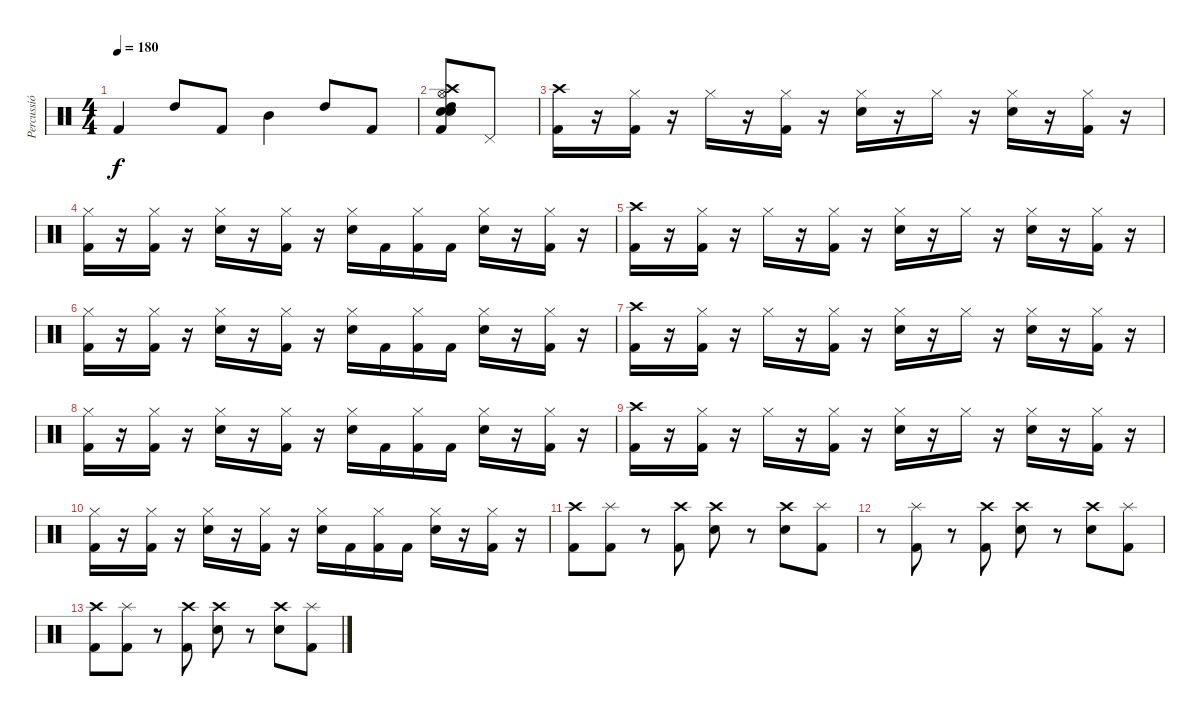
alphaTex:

\track ("Percussió" "Percussió") {instrument percussion}
\staff {score}
\articulation defaults
\ts (4 4)
\tempo 180
\clef neutral
\ks c "Kick (hit) 2".4{dy f} "High Tom (hit)".8 "Kick (hit) 2".8 "Mid Tom (hit)".4 "High Tom (hit)".8 "Kick (hit) 2".8
|
("Crash high (hit)" "Hi-Hat (open)" "High Tom (hit)" "Kick (hit) 2" "Electric Snare (hit)" "Snare (hit) 2").8 "Pedal Hi-Hat (hit)".8 |
("Crash high (hit)" "Kick (hit) 2").16 r.16 ("Hi-Hat (closed)" "Kick (hit) 2").16 r.16 "Hi-Hat (closed)".16 r.16 ("Hi-Hat (closed)" "Kick (hit) 2").16 r.16 ("Hi-Hat (closed)" "Electric Snare (hit)").16 r.16 "Hi-Hat (closed)".16 r.16 ("Hi-Hat (closed)" "Electric Snare (hit)").16 r.16 ("Hi-Hat (closed)" "Kick (hit) 2").16 r.16 |
("Hi-Hat (closed)" "Kick (hit) 2").16 r.16 ("Hi-Hat (closed)" "Kick (hit) 2").16 r.16 ("Hi-Hat (closed)" "Electric Snare (hit)").16 r.16 ("Hi-Hat (closed)" "Kick (hit) 2").16 r.16 ("Hi-Hat (closed)" "Electric Snare (hit)").16 "Kick (hit) 2".16 ("Hi-Hat (closed)" "Kick (hit) 2").16 "Kick (hit) 2".16 ("Hi-Hat (closed)" "Electric Snare (hit)").16 r.16 ("Hi-Hat (closed)" "Kick (hit) 2").16 r.16 |
("Crash high (hit)" "Kick (hit) 2").16 r.16 ("Hi-Hat (closed)" "Kick (hit) 2").16 r.16 "Hi-Hat (closed)".16 r.16 ("Hi-Hat (closed)" "Kick (hit) 2").16 r.16 ("Hi-Hat (closed)" "Electric Snare (hit)").16 r.16 "Hi-Hat (closed)".16 r.16 ("Hi-Hat (closed)" "Electric Snare (hit)").16 r.16 ("Hi-Hat (closed)" "Kick (hit) 2").16 r.16 |
("Hi-Hat (closed)" "Kick (hit) 2").16 r.16 ("Hi-Hat (closed)" "Kick (hit) 2").16 r.16 ("Hi-Hat (closed)" "Electric Snare (hit)").16 r.16 ("Hi-Hat (closed)" "Kick (hit) 2").16 r.16 ("Hi-Hat (closed)" "Electric Snare (hit)").16 "Kick (hit) 2".16 ("Hi-Hat (closed)" "Kick (hit) 2").16 "Kick (hit) 2".16 ("Hi-Hat (closed)" "Electric Snare (hit)").16 r.16 ("Hi-Hat (closed)" "Kick (hit) 2").16 r.16 |
("Crash high (hit)" "Kick (hit) 2").16 r.16 ("Hi-Hat (closed)" "Kick (hit) 2").16 r.16 "Hi-Hat (closed)".16 r.16 ("Hi-Hat (closed)" "Kick (hit) 2").16 r.16 ("Hi-Hat (closed)" "Electric Snare (hit)").16 r.16 "Hi-Hat (closed)".16 r.16 ("Hi-Hat (closed)" "Electric Snare (hit)").16 r.16 ("Hi-Hat (closed)" "Kick (hit) 2").16 r.16 |
("Hi-Hat (closed)" "Kick (hit) 2").16 r.16 ("Hi-Hat (closed)" "Kick (hit) 2").16 r.16 ("Hi-Hat (closed)" "Electric Snare (hit)").16 r.16 ("Hi-Hat (closed)" "Kick (hit) 2").16 r.16 ("Hi-Hat (closed)" "Electric Snare (hit)").16 "Kick (hit) 2".16 ("Hi-Hat (closed)" "Kick (hit) 2").16 "Kick (hit) 2".16 ("Hi-Hat (closed)" "Electric Snare (hit)").16 r.16 ("Hi-Hat (closed)" "Kick (hit) 2").16 r.16 |
("Crash high (hit)" "Kick (hit) 2").16 r.16 ("Hi-Hat (closed)" "Kick (hit) 2").16 r.16 "Hi-Hat (closed)".16 r.16 ("Hi-Hat (closed)" "Kick (hit) 2").16 r.16 ("Hi-Hat (closed)" "Electric Snare (hit)").16 r.16 "Hi-Hat (closed)".16 r.16 ("Hi-Hat (closed)" "Electric Snare (hit)").16 r.16 ("Hi-Hat (closed)" "Kick (hit) 2").16 r.16 |
("Hi-Hat (closed)" "Kick (hit) 2").16 r.16 ("Hi-Hat (closed)" "Kick (hit) 2").16 r.16 ("Hi-Hat (closed)" "Electric Snare (hit)").16 r.16 ("Hi-Hat (closed)" "Kick (hit) 2").16 r.16 ("Hi-Hat (closed)" "Electric Snare (hit)").16 "Kick (hit) 2".16 ("Hi-Hat (closed)" "Kick (hit) 2").16 "Kick (hit) 2".16 ("Hi-Hat (closed)" "Electric Snare (hit)").16 r.16 ("Hi-Hat (closed)" "Kick (hit) 2").16 r.16 |
("Crash high (hit)" "Kick (hit) 2").8 ("Splash (hit)" "Kick (hit) 2").8 r.8 ("Crash high (hit)" "Kick (hit) 2").8 ("Crash high (hit)" "Electric Snare (hit)").8 r.8 ("Crash high (hit)" "Electric Snare (hit)").8 ("Splash (hit)" "Kick (hit) 2").8 |
r.8 ("Splash (hit)" "Kick (hit) 2").8 r.8 ("Crash high (hit)" "Kick (hit) 2").8 ("Crash high (hit)" "Electric Snare (hit)").8 r.8 ("Crash high (hit)" "Electric Snare (hit)").8 ("Splash (hit)" "Kick (hit) 2").8 |
("Crash high (hit)" "Kick (hit) 2").8 ("Splash (hit)" "Kick (hit) 2").8 r.8 ("Crash high (hit)" "Kick (hit) 2").8 ("Crash high (hit)" "Electric Snare (hit)").8 r.8 ("Crash high (hit)" "Electric Snare (hit)").8 ("Splash (hit)" "Kick (hit) 2").8
